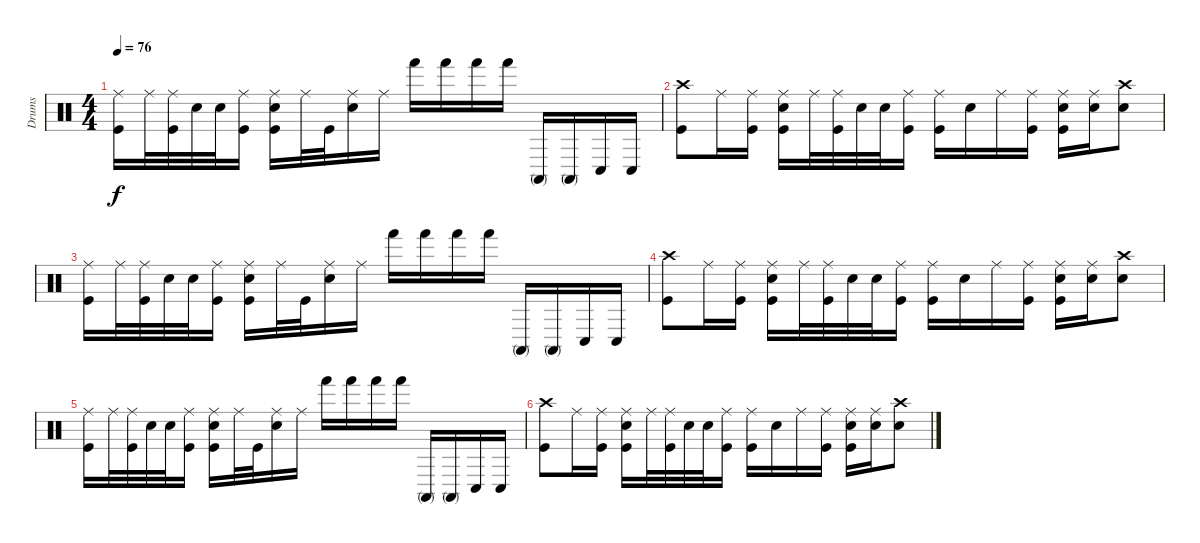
\track ("Drums" "Drums") {instrument percussion}
\staff {score}
\articulation defaults
\ts (4 4)
\tempo 76
\clef neutral
\ks c
("Kick (hit)" "Ride (middle)").16{dy f} "Ride (middle)".32 ("Kick (hit)" "Ride (middle)").32 "Electric Snare (hit)".32 "Electric Snare (hit)".32 ("Kick (hit)" "Ride (middle)").16 ("Ride (middle)" "Kick (hit)" "Electric Snare (hit)").16 "Ride (middle)".32 "Kick (hit)".32 ("Ride (middle)" "Electric Snare (hit)").16 "Ride (middle)".16 "Hand (hit)".16 "Hand (hit)".16 "Hand (hit)".16 "Hand (hit)".16 "Conga high (mute)".16 "Conga high (mute)".16 "Conga low (hit)".16 "Conga low (hit)".16 |
("Kick (hit)" "Crash high (hit)").8 "Ride (middle)".16 ("Kick (hit)" "Ride (middle)").16 ("Electric Snare (hit)" "Kick (hit)" "Ride (middle)").16 "Ride (middle)".32 ("Kick (hit)" "Ride (middle)").32 "Electric Snare (hit)".32 "Electric Snare (hit)".32 ("Kick (hit)" "Ride (middle)").16 ("Kick (hit)" "Ride (middle)").16 "Electric Snare (hit)".16 "Ride (middle)".16 ("Kick (hit)" "Ride (middle)").16 ("Kick (hit)" "Electric Snare (hit)" "Ride (middle)").16 ("Electric Snare (hit)" "Ride (middle)").16 ("Electric Snare (hit)" "Crash high (hit)").8 |
("Kick (hit)" "Ride (middle)").16 "Ride (middle)".32 ("Kick (hit)" "Ride (middle)").32 "Electric Snare (hit)".32 "Electric Snare (hit)".32 ("Kick (hit)" "Ride (middle)").16 ("Ride (middle)" "Kick (hit)" "Electric Snare (hit)").16 "Ride (middle)".32 "Kick (hit)".32 ("Ride (middle)" "Electric Snare (hit)").16 "Ride (middle)".16 "Hand (hit)".16 "Hand (hit)".16 "Hand (hit)".16 "Hand (hit)".16 "Conga high (mute)".16 "Conga high (mute)".16 "Conga low (hit)".16 "Conga low (hit)".16 |
("Kick (hit)" "Crash high (hit)").8 "Ride (middle)".16 ("Kick (hit)" "Ride (middle)").16 ("Electric Snare (hit)" "Kick (hit)" "Ride (middle)").16 "Ride (middle)".32 ("Kick (hit)" "Ride (middle)").32 "Electric Snare (hit)".32 "Electric Snare (hit)".32 ("Kick (hit)" "Ride (middle)").16 ("Kick (hit)" "Ride (middle)").16 "Electric Snare (hit)".16 "Ride (middle)".16 ("Kick (hit)" "Ride (middle)").16 ("Kick (hit)" "Electric Snare (hit)" "Ride (middle)").16 ("Electric Snare (hit)" "Ride (middle)").16 ("Electric Snare (hit)" "Crash high (hit)").8 |
("Ride (middle)" "Kick (hit)").16 "Ride (middle)".32 ("Kick (hit)" "Ride (middle)").32 "Electric Snare (hit)".32 "Electric Snare (hit)".32 ("Kick (hit)" "Ride (middle)").16 ("Ride (middle)" "Kick (hit)" "Electric Snare (hit)").16 "Ride (middle)".32 "Kick (hit)".32 ("Ride (middle)" "Electric Snare (hit)").16 "Ride (middle)".16 "Hand (hit)".16 "Hand (hit)".16 "Hand (hit)".16 "Hand (hit)".16 "Conga high (mute)".16 "Conga high (mute)".16 "Conga low (hit)".16 "Conga low (hit)".16 |
("Crash high (hit)" "Kick (hit)").8 "Ride (middle)".16 ("Kick (hit)" "Ride (middle)").16 ("Electric Snare (hit)" "Kick (hit)" "Ride (middle)").16 "Ride (middle)".32 ("Kick (hit)" "Ride (middle)").32 "Electric Snare (hit)".32 "Electric Snare (hit)".32 ("Kick (hit)" "Ride (middle)").16 ("Kick (hit)" "Ride (middle)").16 "Electric Snare (hit)".16 "Ride (middle)".16 ("Kick (hit)" "Ride (middle)").16 ("Kick (hit)" "Electric Snare (hit)" "Ride (middle)").16 ("Electric Snare (hit)" "Ride (middle)").16 ("Electric Snare (hit)" "Crash high (hit)").8
